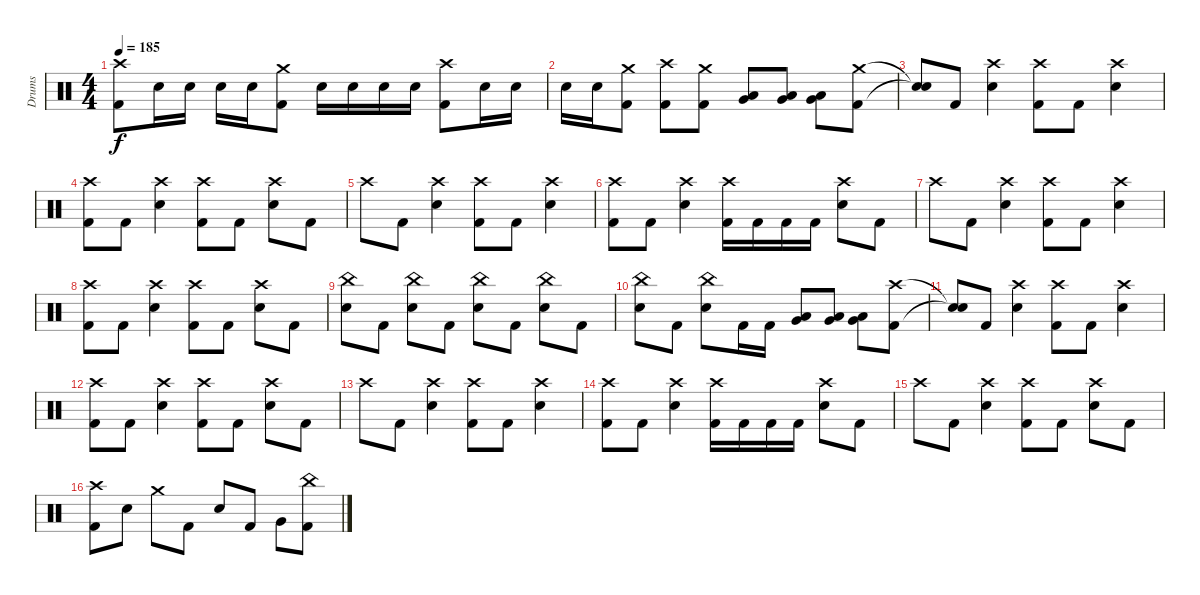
\track ("Drums" "Drums") {instrument percussion}
\staff {score}
\articulation defaults
\ts (4 4)
\tempo 185
\clef neutral
\ks c
("Crash high (hit)" "Kick (hit) 2").8{dy f} "Electric Snare (hit)".16 "Electric Snare (hit)".16 "Electric Snare (hit)".16 "Electric Snare (hit)".16 ("Crash medium (hit)" "Kick (hit) 2").8 "Electric Snare (hit)".16 "Electric Snare (hit)".16 "Electric Snare (hit)".16 "Electric Snare (hit)".16 ("Crash high (hit)" "Kick (hit) 2").8 "Electric Snare (hit)".16 "Electric Snare (hit)".16 |
"Electric Snare (hit)".16 "Electric Snare (hit)".16 ("Crash medium (hit)" "Kick (hit) 2").8 ("Crash high (hit)" "Kick (hit) 2").8 ("Crash medium (hit)" "Kick (hit) 2").8 ("Low Floor Tom (hit)" "Very Low Tom (hit)").8 ("Low Floor Tom (hit)" "Very Low Tom (hit)").8 ("Low Floor Tom (hit)" "Very Low Tom (hit)").8 ("Crash medium (hit)" "Kick (hit) 2").8 |
("Snare (hit)"{t} "Snare (hit)"{t}).8 "Kick (hit) 2".8 ("Crash high (hit)" "Electric Snare (hit)").4 ("Crash high (hit)" "Kick (hit) 2").8 "Kick (hit) 2".8 ("Crash high (hit)" "Electric Snare (hit)").4 |
("Crash high (hit)" "Kick (hit) 2").8 "Kick (hit) 2".8 ("Crash high (hit)" "Electric Snare (hit)").4 ("Crash high (hit)" "Kick (hit) 2").8 "Kick (hit) 2".8 ("Crash high (hit)" "Electric Snare (hit)").8 "Kick (hit) 2".8 |
"Crash high (hit)".8 "Kick (hit) 2".8 ("Crash high (hit)" "Electric Snare (hit)").4 ("Crash high (hit)" "Kick (hit) 2").8 "Kick (hit) 2".8 ("Crash high (hit)" "Electric Snare (hit)").4 |
("Crash high (hit)" "Kick (hit) 2").8 "Kick (hit) 2".8 ("Crash high (hit)" "Electric Snare (hit)").4 ("Crash high (hit)" "Kick (hit) 2").16 "Kick (hit) 2".16 "Kick (hit) 2".16 "Kick (hit) 2".16 ("Crash high (hit)" "Electric Snare (hit)").8 "Kick (hit) 2".8 |
"Crash high (hit)".8 "Kick (hit) 2".8 ("Crash high (hit)" "Electric Snare (hit)").4 ("Crash high (hit)" "Kick (hit) 2").8 "Kick (hit) 2".8 ("Crash high (hit)" "Electric Snare (hit)").4 |
("Crash high (hit)" "Kick (hit) 2").8 "Kick (hit) 2".8 ("Crash high (hit)" "Electric Snare (hit)").4 ("Crash high (hit)" "Kick (hit) 2").8 "Kick (hit) 2".8 ("Crash high (hit)" "Electric Snare (hit)").8 "Kick (hit) 2".8 |
("China (hit)" "Electric Snare (hit)").8 "Kick (hit) 2".8 ("China (hit)" "Electric Snare (hit)").8 "Kick (hit) 2".8 ("China (hit)" "Electric Snare (hit)").8 "Kick (hit) 2".8 ("China (hit)" "Electric Snare (hit)").8 "Kick (hit) 2".8 |
("China (hit)" "Electric Snare (hit)").8 "Kick (hit) 2".8 ("China (hit)" "Electric Snare (hit)").8 "Kick (hit) 2".16 "Kick (hit) 2".16 ("Low Tom (hit)" "Very Low Tom (hit)").8 ("Low Tom (hit)" "Very Low Tom (hit)").8 ("Low Floor Tom (hit)" "Very Low Tom (hit)").8 ("Crash high (hit)" "Kick (hit) 2").8 |
("Snare (hit)"{t} "Snare (hit)"{t}).8 "Kick (hit) 2".8 ("Crash high (hit)" "Electric Snare (hit)").4 ("Crash high (hit)" "Kick (hit) 2").8 "Kick (hit) 2".8 ("Crash high (hit)" "Electric Snare (hit)").4 |
("Crash high (hit)" "Kick (hit) 2").8 "Kick (hit) 2".8 ("Crash high (hit)" "Electric Snare (hit)").4 ("Crash high (hit)" "Kick (hit) 2").8 "Kick (hit) 2".8 ("Crash high (hit)" "Electric Snare (hit)").8 "Kick (hit) 2".8 |
"Crash high (hit)".8 "Kick (hit) 2".8 ("Crash high (hit)" "Electric Snare (hit)").4 ("Crash high (hit)" "Kick (hit) 2").8 "Kick (hit) 2".8 ("Crash high (hit)" "Electric Snare (hit)").4 |
("Crash high (hit)" "Kick (hit) 2").8 "Kick (hit) 2".8 ("Crash high (hit)" "Electric Snare (hit)").4 ("Crash high (hit)" "Kick (hit) 2").16 "Kick (hit) 2".16 "Kick (hit) 2".16 "Kick (hit) 2".16 ("Crash high (hit)" "Electric Snare (hit)").8 "Kick (hit) 2".8 |
"Crash high (hit)".8 "Kick (hit) 2".8 ("Crash high (hit)" "Electric Snare (hit)").4 ("Crash high (hit)" "Kick (hit) 2").8 "Kick (hit) 2".8 ("Crash high (hit)" "Electric Snare (hit)").8 "Kick (hit) 2".8 |
("Crash high (hit)" "Kick (hit) 2").8 "Electric Snare (hit)".8 "Crash medium (hit)".8 "Kick (hit) 2".8 "Electric Snare (hit)".8 "Kick (hit) 2".8 "Very Low Tom (hit)".8 ("China (hit)" "Kick (hit) 2").8
